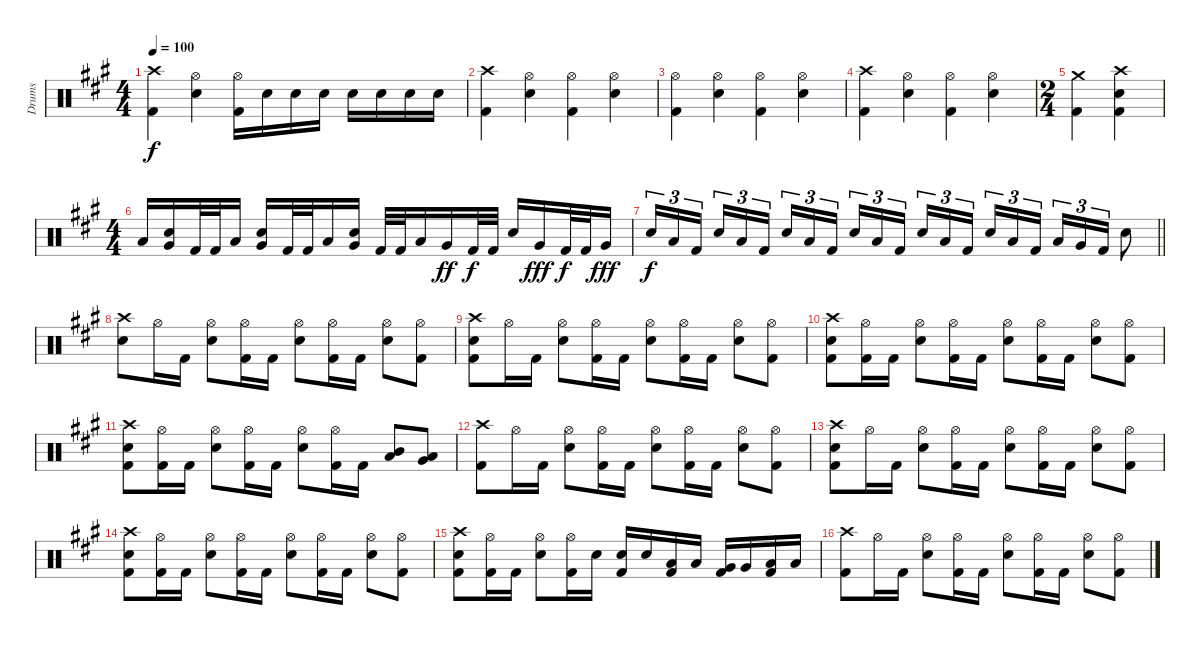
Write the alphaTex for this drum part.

\track ("Drums" "Drums") {instrument percussion}
\staff {score}
\articulation defaults
\ts (4 4)
\tempo 100
\clef neutral
\ks f#minor
("Crash high (hit)" "Kick (hit) 2").4{dy f} ("Hi-Hat (open)" "Snare (hit) 2").4 ("Hi-Hat (open)" "Kick (hit) 2").16 "Snare (hit) 2".16 "Snare (hit) 2".16 "Snare (hit) 2".16 "Snare (hit) 2".16 "Snare (hit) 2".16 "Snare (hit) 2".16 "Snare (hit) 2".16 |
("Crash high (hit)" "Kick (hit) 2").4 ("Hi-Hat (open)" "Snare (hit) 2").4 ("Hi-Hat (open)" "Kick (hit) 2").4 ("Hi-Hat (open)" "Snare (hit) 2").4 |
("Hi-Hat (open)" "Kick (hit) 2").4 ("Hi-Hat (open)" "Snare (hit) 2").4 ("Hi-Hat (open)" "Kick (hit) 2").4 ("Hi-Hat (open)" "Snare (hit) 2").4 |
("Crash high (hit)" "Kick (hit) 2").4 ("Hi-Hat (open)" "Snare (hit) 2").4 ("Hi-Hat (open)" "Kick (hit) 2").4 ("Hi-Hat (open)" "Snare (hit) 2").4 |
\ts (2 4)
("Crash medium (hit)" "Kick (hit) 2").4 ("Crash high (hit)" "Snare (hit) 2" "Kick (hit) 2").4 |
\ts (4 4)
"Low Tom (hit)".16 ("Snare (hit) 2" "Very Low Tom (hit)").16 "Kick (hit) 2".32 "Kick (hit) 2".32 "Low Tom (hit)".16 ("Snare (hit) 2" "Very Low Tom (hit)").16 "Kick (hit) 2".32 "Kick (hit) 2".32 "Low Tom (hit)".16 ("Snare (hit) 2" "Very Low Tom (hit)").16 "Kick (hit) 2".32 "Kick (hit) 2".32 "Low Tom (hit)".16 "Very Low Tom (hit)".16{dy ff} "Kick (hit) 2".32{dy f} "Kick (hit) 2".32 "Snare (hit) 2".16 "Very Low Tom (hit)".16{dy fff} "Kick (hit) 2".32{dy f} "Kick (hit) 2".32 "Very Low Tom (hit)".16{dy fff} |
\barLineRight lightlight "Snare (hit) 2".16{tu (3 2) dy f} "Low Tom (hit)".16{tu (3 2)} "Kick (hit) 2".16{tu (3 2)} "Snare (hit) 2".16{tu (3 2)} "Low Tom (hit)".16{tu (3 2)} "Kick (hit) 2".16{tu (3 2)} "Snare (hit) 2".16{tu (3 2)} "Low Tom (hit)".16{tu (3 2)} "Kick (hit) 2".16{tu (3 2)} "Snare (hit) 2".16{tu (3 2)} "Low Tom (hit)".16{tu (3 2)} "Kick (hit) 2".16{tu (3 2)} "Snare (hit) 2".16{tu (3 2)} "Low Tom (hit)".16{tu (3 2)} "Kick (hit) 2".16{tu (3 2)} "Snare (hit) 2".16{tu (3 2)} "Low Tom (hit)".16{tu (3 2)} "Kick (hit) 2".16{tu (3 2)} "Low Tom (hit)".16{tu (3 2)} "Very Low Tom (hit)".16{tu (3 2)} "Kick (hit) 2".16{tu (3 2)} "Snare (hit) 2".8
|
("Crash high (hit)" "Snare (hit) 2").8 "Hi-Hat (open)".16 "Kick (hit) 2".16 ("Hi-Hat (open)" "Snare (hit) 2").8 ("Hi-Hat (open)" "Kick (hit) 2").16 "Kick (hit) 2".16 ("Hi-Hat (open)" "Snare (hit) 2").8 ("Hi-Hat (open)" "Kick (hit) 2").16 "Kick (hit) 2".16 ("Hi-Hat (open)" "Snare (hit) 2").8 ("Hi-Hat (open)" "Kick (hit) 2").8 |
("Crash high (hit)" "Snare (hit) 2" "Kick (hit) 2").8 "Hi-Hat (open)".16 "Kick (hit) 2".16 ("Hi-Hat (open)" "Snare (hit) 2").8 ("Hi-Hat (open)" "Kick (hit) 2").16 "Kick (hit) 2".16 ("Hi-Hat (open)" "Snare (hit) 2").8 ("Hi-Hat (open)" "Kick (hit) 2").16 "Kick (hit) 2".16 ("Hi-Hat (open)" "Snare (hit) 2").8 ("Hi-Hat (open)" "Kick (hit) 2").8 |
("Crash high (hit)" "Snare (hit) 2" "Kick (hit) 2").8 ("Hi-Hat (open)" "Kick (hit) 2").16 "Kick (hit) 2".16 ("Hi-Hat (open)" "Snare (hit) 2").8 ("Hi-Hat (open)" "Kick (hit) 2").16 "Kick (hit) 2".16 ("Hi-Hat (open)" "Snare (hit) 2").8 ("Hi-Hat (open)" "Kick (hit) 2").16 "Kick (hit) 2".16 ("Hi-Hat (open)" "Snare (hit) 2").8 ("Hi-Hat (open)" "Kick (hit) 2").8 |
("Crash high (hit)" "Snare (hit) 2" "Kick (hit) 2").8 ("Hi-Hat (open)" "Kick (hit) 2").16 "Kick (hit) 2".16 ("Hi-Hat (open)" "Snare (hit) 2").8 ("Hi-Hat (open)" "Kick (hit) 2").16 "Kick (hit) 2".16 ("Hi-Hat (open)" "Snare (hit) 2").8 ("Hi-Hat (open)" "Kick (hit) 2").16 "Kick (hit) 2".16 ("Mid Tom (hit)" "Low Tom (hit)").8 ("Low Tom (hit)" "Very Low Tom (hit)").8 |
("Crash high (hit)" "Kick (hit) 2").8 "Hi-Hat (open)".16 "Kick (hit) 2".16 ("Hi-Hat (open)" "Snare (hit) 2").8 ("Hi-Hat (open)" "Kick (hit) 2").16 "Kick (hit) 2".16 ("Hi-Hat (open)" "Snare (hit) 2").8 ("Hi-Hat (open)" "Kick (hit) 2").16 "Kick (hit) 2".16 ("Hi-Hat (open)" "Snare (hit) 2").8 ("Hi-Hat (open)" "Kick (hit) 2").8 |
("Crash high (hit)" "Snare (hit) 2" "Kick (hit) 2").8 "Hi-Hat (open)".16 "Kick (hit) 2".16 ("Hi-Hat (open)" "Snare (hit) 2").8 ("Hi-Hat (open)" "Kick (hit) 2").16 "Kick (hit) 2".16 ("Hi-Hat (open)" "Snare (hit) 2").8 ("Hi-Hat (open)" "Kick (hit) 2").16 "Kick (hit) 2".16 ("Hi-Hat (open)" "Snare (hit) 2").8 ("Hi-Hat (open)" "Kick (hit) 2").8 |
("Crash high (hit)" "Snare (hit) 2" "Kick (hit) 2").8 ("Hi-Hat (open)" "Kick (hit) 2").16 "Kick (hit) 2".16 ("Hi-Hat (open)" "Snare (hit) 2").8 ("Hi-Hat (open)" "Kick (hit) 2").16 "Kick (hit) 2".16 ("Hi-Hat (open)" "Snare (hit) 2").8 ("Hi-Hat (open)" "Kick (hit) 2").16 "Kick (hit) 2".16 ("Hi-Hat (open)" "Snare (hit) 2").8 ("Hi-Hat (open)" "Kick (hit) 2").8 |
("Crash high (hit)" "Snare (hit) 2" "Kick (hit) 2").8 ("Hi-Hat (open)" "Kick (hit) 2").16 "Kick (hit) 2".16 ("Hi-Hat (open)" "Snare (hit) 2").8 ("Hi-Hat (open)" "Kick (hit) 2").16 "Snare (hit) 2".16 ("Snare (hit) 2" "Kick (hit) 2").16 "Snare (hit) 2".16 ("Low Tom (hit)" "Kick (hit) 2").16 "Low Tom (hit)".16 ("Very Low Tom (hit)" "Kick (hit) 2").16 "Very Low Tom (hit)".16 ("Low Floor Tom (hit)" "Kick (hit) 2").16 "Low Floor Tom (hit)".16 |
("Crash high (hit)" "Kick (hit) 2").8 "Hi-Hat (open)".16 "Kick (hit) 2".16 ("Hi-Hat (open)" "Snare (hit) 2").8 ("Hi-Hat (open)" "Kick (hit) 2").16 "Kick (hit) 2".16 ("Hi-Hat (open)" "Snare (hit) 2").8 ("Hi-Hat (open)" "Kick (hit) 2").16 "Kick (hit) 2".16 ("Hi-Hat (open)" "Snare (hit) 2").8 ("Hi-Hat (open)" "Kick (hit) 2").8
